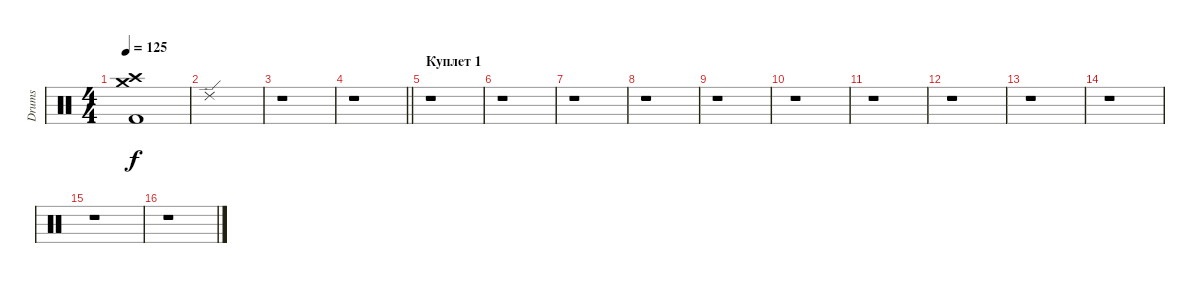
\track ("Drums" "Drums") {instrument percussion}
\staff {score}
\articulation defaults
\ts (4 4)
\tempo 125
\clef neutral
\ks c
("Crash high (hit)" "Crash medium (hit)" "Kick (hit) 2").1{dy f} |
"Ride (edge) 2".1 |
r.1 |
\barLineRight lightlight
r.1 |
\section ("" "Куплет 1")
r.1 |
r.1 |
r.1 |
r.1 |
r.1 |
r.1 |
r.1 |
r.1 |
r.1 |
r.1 |
r.1 |
r.1
